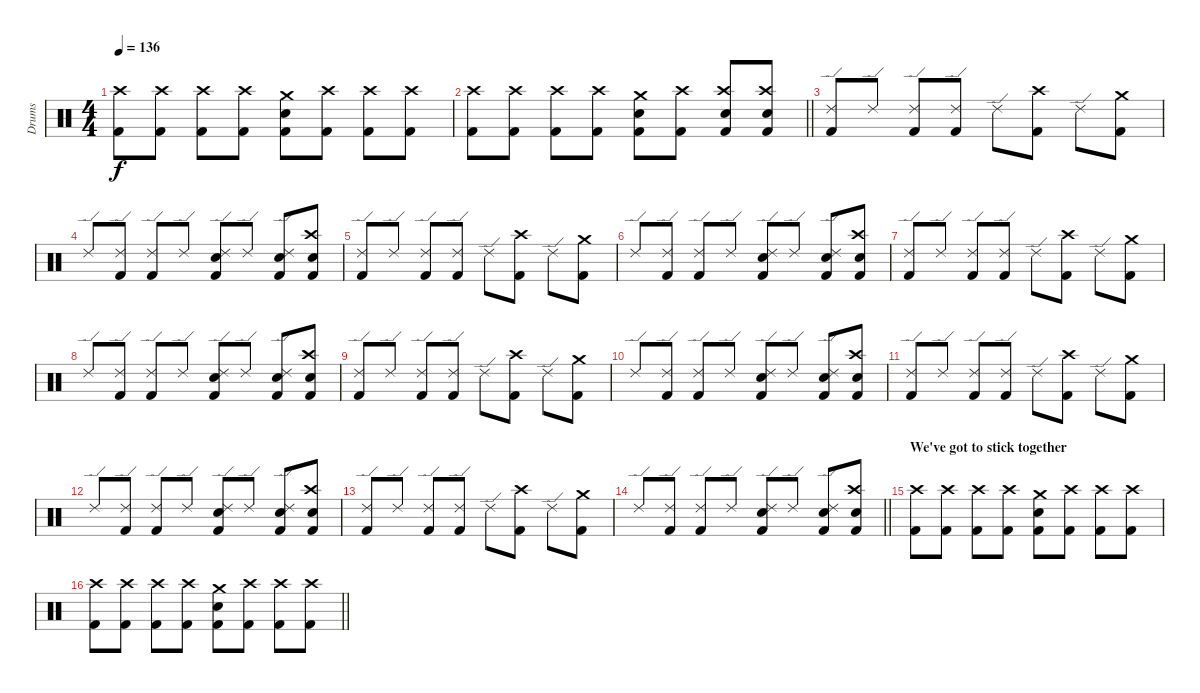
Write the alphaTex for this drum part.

\track ("Drums" "Drums") {instrument percussion}
\staff {score}
\articulation defaults
\ts (4 4)
\tempo 136
\clef neutral
\ks c
("Kick (hit) 2" "Crash high (hit)").8{dy f} ("Kick (hit) 2" "Crash high (hit)").8 ("Kick (hit) 2" "Crash high (hit)").8 ("Kick (hit) 2" "Crash high (hit)").8 ("Kick (hit) 2" "Snare (hit) 2" "Crash medium (hit)").8 ("Kick (hit) 2" "Crash high (hit)").8 ("Kick (hit) 2" "Crash high (hit)").8 ("Kick (hit) 2" "Crash high (hit)").8 |
\barLineRight lightlight
("Kick (hit) 2" "Crash high (hit)").8 ("Kick (hit) 2" "Crash high (hit)").8 ("Kick (hit) 2" "Crash high (hit)").8 ("Kick (hit) 2" "Crash high (hit)").8 ("Kick (hit) 2" "Snare (hit) 2" "Crash medium (hit)").8 ("Kick (hit) 2" "Crash high (hit)").8 ("Kick (hit) 2" "Snare (hit) 2" "Crash high (hit)").8 ("Kick (hit) 2" "Snare (hit) 2" "Crash high (hit)").8 |
\section ("" "")
("Kick (hit) 2" "Ride (edge) 2").8 "Ride (edge) 2".8 ("Kick (hit) 2" "Ride (edge) 2").8 ("Kick (hit) 2" "Ride (edge) 2").8 "Ride (edge) 2".8 ("Kick (hit) 2" "Crash high (hit)").8 "Ride (edge) 2".8 ("Kick (hit) 2" "Crash medium (hit)").8 |
"Ride (edge) 2".8 ("Kick (hit) 2" "Ride (edge) 2").8 ("Kick (hit) 2" "Ride (edge) 2").8 "Ride (edge) 2".8 ("Kick (hit) 2" "Snare (hit) 2" "Ride (edge) 2").8 "Ride (edge) 2".8 ("Kick (hit) 2" "Snare (hit) 2" "Ride (edge) 2").8 ("Kick (hit) 2" "Snare (hit) 2" "Crash high (hit)").8 |
("Kick (hit) 2" "Ride (edge) 2").8 "Ride (edge) 2".8 ("Kick (hit) 2" "Ride (edge) 2").8 ("Kick (hit) 2" "Ride (edge) 2").8 "Ride (edge) 2".8 ("Kick (hit) 2" "Crash high (hit)").8 "Ride (edge) 2".8 ("Kick (hit) 2" "Crash medium (hit)").8 |
"Ride (edge) 2".8 ("Kick (hit) 2" "Ride (edge) 2").8 ("Kick (hit) 2" "Ride (edge) 2").8 "Ride (edge) 2".8 ("Kick (hit) 2" "Snare (hit) 2" "Ride (edge) 2").8 "Ride (edge) 2".8 ("Kick (hit) 2" "Snare (hit) 2" "Ride (edge) 2").8 ("Kick (hit) 2" "Snare (hit) 2" "Crash high (hit)").8 |
("Kick (hit) 2" "Ride (edge) 2").8 "Ride (edge) 2".8 ("Kick (hit) 2" "Ride (edge) 2").8 ("Kick (hit) 2" "Ride (edge) 2").8 "Ride (edge) 2".8 ("Kick (hit) 2" "Crash high (hit)").8 "Ride (edge) 2".8 ("Kick (hit) 2" "Crash medium (hit)").8 |
"Ride (edge) 2".8 ("Kick (hit) 2" "Ride (edge) 2").8 ("Kick (hit) 2" "Ride (edge) 2").8 "Ride (edge) 2".8 ("Kick (hit) 2" "Snare (hit) 2" "Ride (edge) 2").8 "Ride (edge) 2".8 ("Kick (hit) 2" "Snare (hit) 2" "Ride (edge) 2").8 ("Kick (hit) 2" "Snare (hit) 2" "Crash high (hit)").8 |
("Kick (hit) 2" "Ride (edge) 2").8 "Ride (edge) 2".8 ("Kick (hit) 2" "Ride (edge) 2").8 ("Kick (hit) 2" "Ride (edge) 2").8 "Ride (edge) 2".8 ("Kick (hit) 2" "Crash high (hit)").8 "Ride (edge) 2".8 ("Kick (hit) 2" "Crash medium (hit)").8 |
"Ride (edge) 2".8 ("Kick (hit) 2" "Ride (edge) 2").8 ("Kick (hit) 2" "Ride (edge) 2").8 "Ride (edge) 2".8 ("Kick (hit) 2" "Snare (hit) 2" "Ride (edge) 2").8 "Ride (edge) 2".8 ("Kick (hit) 2" "Snare (hit) 2" "Ride (edge) 2").8 ("Kick (hit) 2" "Snare (hit) 2" "Crash high (hit)").8 |
("Kick (hit) 2" "Ride (edge) 2").8 "Ride (edge) 2".8 ("Kick (hit) 2" "Ride (edge) 2").8 ("Kick (hit) 2" "Ride (edge) 2").8 "Ride (edge) 2".8 ("Kick (hit) 2" "Crash high (hit)").8 "Ride (edge) 2".8 ("Kick (hit) 2" "Crash medium (hit)").8 |
"Ride (edge) 2".8 ("Kick (hit) 2" "Ride (edge) 2").8 ("Kick (hit) 2" "Ride (edge) 2").8 "Ride (edge) 2".8 ("Kick (hit) 2" "Snare (hit) 2" "Ride (edge) 2").8 "Ride (edge) 2".8 ("Kick (hit) 2" "Snare (hit) 2" "Ride (edge) 2").8 ("Kick (hit) 2" "Snare (hit) 2" "Crash high (hit)").8 |
("Kick (hit) 2" "Ride (edge) 2").8 "Ride (edge) 2".8 ("Kick (hit) 2" "Ride (edge) 2").8 ("Kick (hit) 2" "Ride (edge) 2").8 "Ride (edge) 2".8 ("Kick (hit) 2" "Crash high (hit)").8 "Ride (edge) 2".8 ("Kick (hit) 2" "Crash medium (hit)").8 |
\barLineRight lightlight "Ride (edge) 2".8
("Kick (hit) 2" "Ride (edge) 2").8 ("Kick (hit) 2" "Ride (edge) 2").8 "Ride (edge) 2".8 ("Kick (hit) 2" "Snare (hit) 2" "Ride (edge) 2").8 "Ride (edge) 2".8 ("Kick (hit) 2" "Snare (hit) 2" "Ride (edge) 2").8 ("Kick (hit) 2" "Snare (hit) 2" "Crash high (hit)").8 |
\section ("" "We've got to stick together")
("Kick (hit) 2" "Crash high (hit)").8 ("Kick (hit) 2" "Crash high (hit)").8 ("Kick (hit) 2" "Crash high (hit)").8 ("Kick (hit) 2" "Crash high (hit)").8 ("Kick (hit) 2" "Snare (hit) 2" "Crash medium (hit)").8 ("Kick (hit) 2" "Crash high (hit)").8 ("Kick (hit) 2" "Crash high (hit)").8 ("Kick (hit) 2" "Crash high (hit)").8 |
\barLineRight lightlight
("Kick (hit) 2" "Crash high (hit)").8 ("Kick (hit) 2" "Crash high (hit)").8 ("Kick (hit) 2" "Crash high (hit)").8 ("Kick (hit) 2" "Crash high (hit)").8 ("Kick (hit) 2" "Snare (hit) 2" "Crash medium (hit)").8 ("Kick (hit) 2" "Crash high (hit)").8 ("Kick (hit) 2" "Crash high (hit)").8 ("Kick (hit) 2" "Crash high (hit)").8
